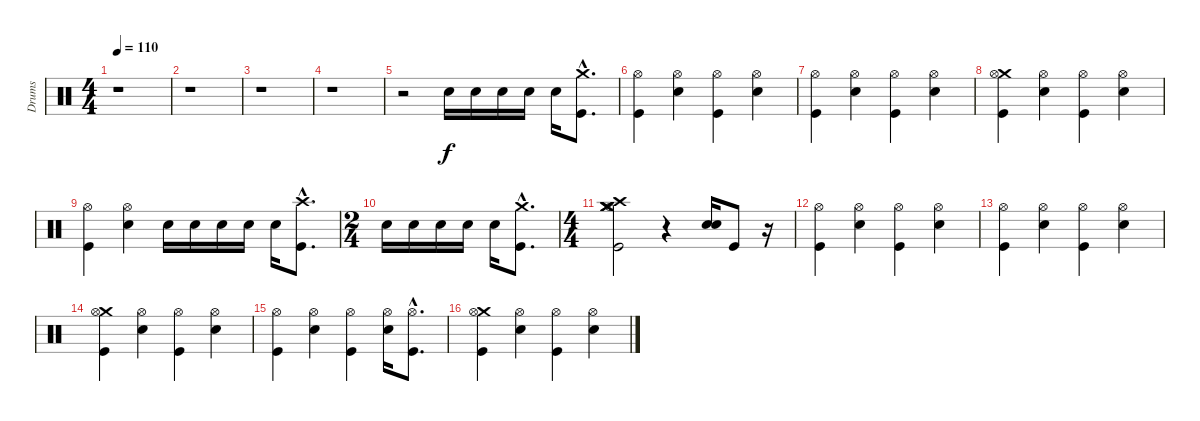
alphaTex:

\track ("Drums" "Drums") {instrument percussion}
\staff {score}
\articulation defaults
\ts (4 4)
\tempo 110
\clef neutral
\ks c
r.1{dy f} |
r.1 |
r.1 |
r.1 |
r.2 "Snare (hit) 2".16 "Snare (hit) 2".16 "Snare (hit) 2".16 "Snare (hit) 2".16 "Snare (hit) 2".16 ("Crash medium (hit)"{hac} "Kick (hit)"{hac}).8{d} |
("Hi-Hat (open)" "Kick (hit)").4 ("Hi-Hat (open)" "Snare (hit) 2").4 ("Hi-Hat (open)" "Kick (hit)").4 ("Hi-Hat (open)" "Snare (hit) 2").4 |
("Hi-Hat (open)" "Kick (hit)").4 ("Hi-Hat (open)" "Snare (hit) 2").4 ("Hi-Hat (open)" "Kick (hit)").4 ("Hi-Hat (open)" "Snare (hit) 2").4 |
("Crash medium (hit)" "Hi-Hat (open)" "Kick (hit)").4 ("Hi-Hat (open)" "Snare (hit) 2").4 ("Hi-Hat (open)" "Kick (hit)").4 ("Hi-Hat (open)" "Snare (hit) 2").4 |
("Hi-Hat (open)" "Kick (hit)").4 ("Hi-Hat (open)" "Snare (hit) 2").4 "Snare (hit) 2".16 "Snare (hit) 2".16 "Snare (hit) 2".16 "Snare (hit) 2".16 "Snare (hit) 2".16 ("Crash high (hit)"{hac} "Kick (hit)"{hac}).8{d} |
\ts (2 4)
"Snare (hit) 2".16 "Snare (hit) 2".16 "Snare (hit) 2".16 "Snare (hit) 2".16 "Snare (hit) 2".16 ("Crash medium (hit)"{hac} "Kick (hit)"{hac}).8{d} |
\ts (4 4)
("Hi-Hat (open)" "Crash medium (hit)" "Crash medium (hit)" "Crash medium (hit)" "Crash high (hit)" "Kick (hit)").2 r.4 ("Snare (hit) 2" "Snare (hit) 2").16 "Kick (hit)".8 r.16 |
("Hi-Hat (open)" "Kick (hit)").4 ("Hi-Hat (open)" "Snare (hit) 2").4 ("Hi-Hat (open)" "Kick (hit)").4 ("Hi-Hat (open)" "Snare (hit) 2").4 |
("Hi-Hat (open)" "Kick (hit)").4 ("Hi-Hat (open)" "Snare (hit) 2").4 ("Hi-Hat (open)" "Kick (hit)").4 ("Hi-Hat (open)" "Snare (hit) 2").4 |
("Crash medium (hit)" "Hi-Hat (open)" "Kick (hit)").4 ("Hi-Hat (open)" "Snare (hit) 2").4 ("Hi-Hat (open)" "Kick (hit)").4 ("Hi-Hat (open)" "Snare (hit) 2").4 |
("Hi-Hat (open)" "Kick (hit)").4 ("Hi-Hat (open)" "Snare (hit) 2").4 ("Hi-Hat (open)" "Kick (hit)").4 ("Hi-Hat (open)" "Snare (hit) 2").16 ("Hi-Hat (open)"{hac} "Kick (hit)"{hac}).8{d} |
("Crash medium (hit)" "Hi-Hat (open)" "Kick (hit)").4 ("Hi-Hat (open)" "Snare (hit) 2").4 ("Hi-Hat (open)" "Kick (hit)").4 ("Hi-Hat (open)" "Snare (hit) 2").4
